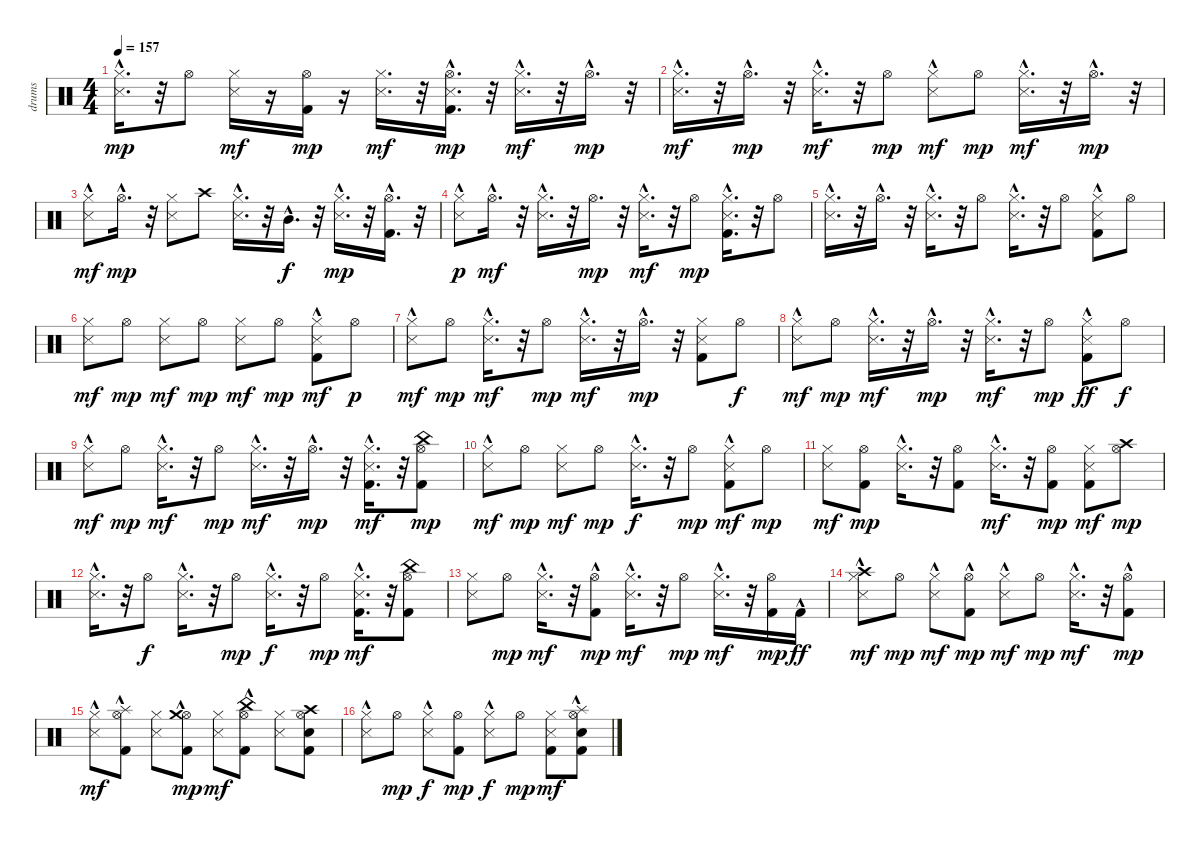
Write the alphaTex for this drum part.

\track ("drums   " "drums   ") {instrument percussion}
\staff {score}
\articulation defaults
\ts (4 4)
\tempo 157
\clef neutral
\ks c
("Snare (side stick) 3"{hac} "Hi-Hat (closed)"{hac}).16{d dy mp} r.32 "Hi-Hat (open)".8 ("Snare (side stick) 3" "Hi-Hat (closed)").16{dy mf} r.16 ("Kick (hit) 2" "Hi-Hat (open)").16{dy mp} r.16 ("Snare (side stick) 3" "Hi-Hat (closed)").16{d dy mf} r.32 ("Kick (hit) 2" "Snare (side stick) 3" "Hi-Hat (open)"{hac}).16{d dy mp} r.32 ("Snare (side stick) 3" "Hi-Hat (closed)"{hac}).16{d dy mf} r.32 "Hi-Hat (open)"{hac}.16{d dy mp} r.32 |
("Snare (side stick) 3" "Hi-Hat (closed)"{hac}).16{d dy mf} r.32 "Hi-Hat (open)"{hac}.16{d dy mp} r.32 ("Snare (side stick) 3" "Hi-Hat (closed)"{hac}).16{d dy mf} r.32 "Hi-Hat (open)".8{dy mp} ("Snare (side stick) 3" "Hi-Hat (closed)"{hac}).8{dy mf} "Hi-Hat (open)".8{dy mp} ("Snare (side stick) 3"{hac} "Hi-Hat (closed)"{hac}).16{d dy mf} r.32 "Hi-Hat (open)"{hac}.16{d dy mp} r.32 |
("Snare (side stick) 3" "Hi-Hat (closed)"{hac}).8{dy mf} "Hi-Hat (open)"{hac}.16{d dy mp} r.32 ("Snare (side stick) 3" "Hi-Hat (closed)").8 "Crash high (hit)".8 ("Snare (side stick) 3"{hac} "Hi-Hat (closed)").16{d} r.32 "Mid Tom (hit)"{hac}.16{d dy f} r.32 ("Snare (side stick) 3"{hac} "Hi-Hat (closed)").16{d dy mp} r.32 ("Kick (hit) 2"{hac} "Hi-Hat (open)"{hac}).16{d} r.32 |
("Snare (side stick) 3" "Hi-Hat (closed)"{hac}).8{dy p} "Hi-Hat (open)"{hac}.16{d dy mf} r.32 ("Snare (side stick) 3"{hac} "Hi-Hat (closed)").16{d} r.32 "Hi-Hat (open)".16{d dy mp} r.32 ("Snare (side stick) 3" "Hi-Hat (closed)"{hac}).16{d dy mf} r.32 "Hi-Hat (open)".8{dy mp} ("Kick (hit) 2"{hac} "Snare (side stick) 3"{hac} "Hi-Hat (closed)"{hac}).16{d} r.32 "Hi-Hat (open)".8 |
("Snare (side stick) 3"{hac} "Hi-Hat (closed)"{hac}).16{d} r.32 "Hi-Hat (open)"{hac}.16{d} r.32 ("Snare (side stick) 3" "Hi-Hat (closed)"{hac}).16{d} r.32 "Hi-Hat (open)".8 ("Snare (side stick) 3" "Hi-Hat (closed)"{hac}).16{d} r.32 "Hi-Hat (open)".8 ("Kick (hit) 2"{hac} "Snare (side stick) 3" "Hi-Hat (closed)").8 "Hi-Hat (open)".8 |
("Snare (side stick) 3" "Hi-Hat (closed)").8{dy mf} "Hi-Hat (open)".8{dy mp} ("Snare (side stick) 3" "Hi-Hat (closed)").8{dy mf} "Hi-Hat (open)".8{dy mp} ("Snare (side stick) 3" "Hi-Hat (closed)").8{dy mf} "Hi-Hat (open)".8{dy mp} ("Kick (hit) 2"{hac} "Snare (side stick) 3"{hac} "Hi-Hat (closed)").8{dy mf} "Hi-Hat (open)".8{dy p} |
("Snare (side stick) 3" "Hi-Hat (closed)"{hac}).8{dy mf} "Hi-Hat (open)".8{dy mp} ("Snare (side stick) 3"{hac} "Hi-Hat (closed)"{hac}).16{d dy mf} r.32 "Hi-Hat (open)".8{dy mp} ("Snare (side stick) 3"{hac} "Hi-Hat (closed)").16{d dy mf} r.32 "Hi-Hat (open)"{hac}.16{d dy mp} r.32 ("Kick (hit) 2" "Snare (side stick) 3" "Hi-Hat (closed)").8 "Hi-Hat (open)".8{dy f} |
("Snare (side stick) 3" "Hi-Hat (closed)"{hac}).8{dy mf} "Hi-Hat (open)".8{dy mp} ("Snare (side stick) 3"{hac} "Hi-Hat (closed)"{hac}).16{d dy mf} r.32 "Hi-Hat (open)"{hac}.16{d dy mp} r.32 ("Snare (side stick) 3"{hac} "Hi-Hat (closed)"{hac}).16{d dy mf} r.32 "Hi-Hat (open)".8{dy mp} ("Kick (hit) 2" "Snare (side stick) 3" "Hi-Hat (closed)"{hac}).8{dy ff} "Hi-Hat (open)".8{dy f} |
("Snare (side stick) 3" "Hi-Hat (closed)"{hac}).8{dy mf} "Hi-Hat (open)".8{dy mp} ("Snare (side stick) 3"{hac} "Hi-Hat (closed)"{hac}).16{d dy mf} r.32 "Hi-Hat (open)".8{dy mp} ("Snare (side stick) 3"{hac} "Hi-Hat (closed)"{hac}).16{d dy mf} r.32 "Hi-Hat (open)"{hac}.16{d dy mp} r.32 ("Kick (hit) 2"{hac} "Snare (side stick) 3"{hac} "Hi-Hat (closed)"{hac}).16{d dy mf} r.32 ("Kick (hit) 2" "Hi-Hat (open)" "China (hit)").8{dy mp} |
("Snare (side stick) 3" "Hi-Hat (closed)"{hac}).8{dy mf} "Hi-Hat (open)".8{dy mp} ("Snare (side stick) 3" "Hi-Hat (closed)").8{dy mf} "Hi-Hat (open)".8{dy mp} ("Snare (side stick) 3"{hac} "Hi-Hat (closed)"{hac}).16{d dy f} r.32 "Hi-Hat (open)".8{dy mp} ("Kick (hit) 2" "Snare (side stick) 3"{hac} "Hi-Hat (closed)").8{dy mf} "Hi-Hat (open)".8{dy mp} |
("Snare (side stick) 3" "Hi-Hat (closed)").8{dy mf} ("Kick (hit) 2" "Hi-Hat (open)").8{dy mp} ("Snare (side stick) 3"{hac} "Hi-Hat (closed)"{hac}).16{d} r.32 ("Kick (hit) 2" "Hi-Hat (open)").8 ("Snare (side stick) 3" "Hi-Hat (closed)"{hac}).16{d dy mf} r.32 ("Kick (hit) 2" "Hi-Hat (open)").8{dy mp} ("Kick (hit) 2" "Snare (side stick) 3" "Hi-Hat (closed)").8{dy mf} ("Hi-Hat (open)" "Crash high (hit)").8{dy mp} |
("Snare (side stick) 3"{hac} "Hi-Hat (closed)"{hac}).16{d} r.32 "Hi-Hat (open)".8{dy f} ("Snare (side stick) 3" "Hi-Hat (closed)"{hac}).16{d} r.32 "Hi-Hat (open)".8{dy mp} ("Snare (side stick) 3"{hac} "Hi-Hat (closed)"{hac}).16{d dy f} r.32 "Hi-Hat (open)".8{dy mp} ("Kick (hit) 2"{hac} "Snare (side stick) 3"{hac} "Hi-Hat (closed)"{hac}).16{d dy mf} r.32 ("Kick (hit) 2" "Hi-Hat (open)" "China (hit)").8 |
("Snare (side stick) 3" "Hi-Hat (closed)").8 "Hi-Hat (open)".8{dy mp} ("Snare (side stick) 3"{hac} "Hi-Hat (closed)"{hac}).16{d dy mf} r.32 ("Kick (hit) 2"{hac} "Hi-Hat (open)").8{dy mp} ("Snare (side stick) 3"{hac} "Hi-Hat (closed)"{hac}).16{d dy mf} r.32 "Hi-Hat (open)".8{dy mp} ("Snare (side stick) 3" "Hi-Hat (closed)"{hac}).16{d dy mf} r.32 ("Kick (hit) 2" "Hi-Hat (open)").16{dy mp} "Kick (hit) 2"{hac}.16{dy ff} |
("Snare (side stick) 3" "Hi-Hat (closed)"{hac} "Crash high (hit)"{hac}).8{dy mf} "Hi-Hat (open)".8{dy mp} ("Snare (side stick) 3"{hac} "Hi-Hat (closed)").8{dy mf} ("Kick (hit) 2"{hac} "Hi-Hat (open)").8{dy mp} ("Snare (side stick) 3"{hac} "Hi-Hat (closed)").8{dy mf} "Hi-Hat (open)".8{dy mp} ("Snare (side stick) 3"{hac} "Hi-Hat (closed)"{hac}).16{d dy mf} r.32 ("Kick (hit) 2"{hac} "Hi-Hat (open)").8{dy mp} |
("Snare (side stick) 3" "Hi-Hat (closed)"{hac}).8{dy mf} ("Kick (hit) 2" "Hi-Hat (open)" "Splash (hit)"{hac}).8 ("Snare (side stick) 3" "Hi-Hat (closed)").8 ("Kick (hit) 2"{hac} "Hi-Hat (open)" "Crash medium (hit)"{hac}).8{dy mp} ("Snare (side stick) 3" "Hi-Hat (closed)").8{dy mf} ("Kick (hit) 2" "Hi-Hat (open)" "China (hit)"{hac}).8 ("Snare (side stick) 3" "Hi-Hat (closed)").8 ("Kick (hit) 2" "Snare (hit) 2" "Hi-Hat (open)" "Crash high (hit)").8 |
("Snare (side stick) 3" "Hi-Hat (closed)"{hac}).8 "Hi-Hat (open)".8{dy mp} ("Snare (side stick) 3"{hac} "Hi-Hat (closed)").8{dy f} ("Kick (hit) 2" "Hi-Hat (open)").8{dy mp} ("Snare (side stick) 3" "Hi-Hat (closed)"{hac}).8{dy f} "Hi-Hat (open)".8{dy mp} ("Kick (hit) 2" "Snare (side stick) 3" "Hi-Hat (closed)").8{dy mf} ("Kick (hit) 2"{hac} "Snare (hit) 2"{hac} "Hi-Hat (open)" "Splash (hit)").8
